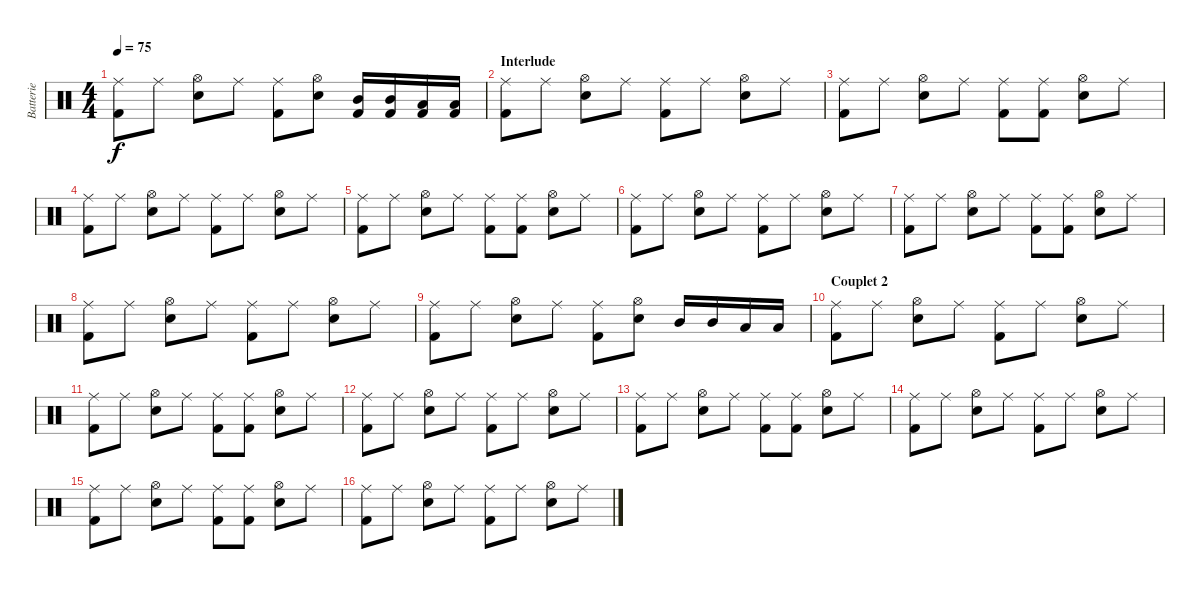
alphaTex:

\track ("Batterie" "Batterie") {instrument percussion}
\staff {score}
\articulation defaults
\ts (4 4)
\tempo 75
\clef neutral
\ks c
("Ride (middle)" "Kick (hit) 2").8{dy f} "Ride (middle)".8 ("Hi-Hat (open)" "Snare (hit) 2").8 "Ride (middle)".8 ("Ride (middle)" "Kick (hit) 2").8 ("Hi-Hat (open)" "Snare (hit) 2").8 ("Mid Tom (hit)" "Kick (hit) 2").16 ("Mid Tom (hit)" "Kick (hit) 2").16 ("Low Tom (hit)" "Kick (hit) 2").16 ("Low Tom (hit)" "Kick (hit) 2").16 |
\section ("" "Interlude")
("Ride (middle)" "Kick (hit) 2").8 "Ride (middle)".8 ("Hi-Hat (open)" "Snare (hit) 2").8 "Ride (middle)".8 ("Ride (middle)" "Kick (hit) 2").8 "Ride (middle)".8 ("Hi-Hat (open)" "Snare (hit) 2").8 "Ride (middle)".8 |
("Ride (middle)" "Kick (hit) 2").8 "Ride (middle)".8 ("Hi-Hat (open)" "Snare (hit) 2").8 "Ride (middle)".8 ("Ride (middle)" "Kick (hit) 2").8 ("Ride (middle)" "Kick (hit) 2").8 ("Hi-Hat (open)" "Snare (hit) 2").8 "Ride (middle)".8 |
("Ride (middle)" "Kick (hit) 2").8 "Ride (middle)".8 ("Hi-Hat (open)" "Snare (hit) 2").8 "Ride (middle)".8 ("Ride (middle)" "Kick (hit) 2").8 "Ride (middle)".8 ("Hi-Hat (open)" "Snare (hit) 2").8 "Ride (middle)".8 |
("Ride (middle)" "Kick (hit) 2").8 "Ride (middle)".8 ("Hi-Hat (open)" "Snare (hit) 2").8 "Ride (middle)".8 ("Ride (middle)" "Kick (hit) 2").8 ("Ride (middle)" "Kick (hit) 2").8 ("Hi-Hat (open)" "Snare (hit) 2").8 "Ride (middle)".8 |
("Ride (middle)" "Kick (hit) 2").8 "Ride (middle)".8 ("Hi-Hat (open)" "Snare (hit) 2").8 "Ride (middle)".8 ("Ride (middle)" "Kick (hit) 2").8 "Ride (middle)".8 ("Hi-Hat (open)" "Snare (hit) 2").8 "Ride (middle)".8 |
("Ride (middle)" "Kick (hit) 2").8 "Ride (middle)".8 ("Hi-Hat (open)" "Snare (hit) 2").8 "Ride (middle)".8 ("Ride (middle)" "Kick (hit) 2").8 ("Ride (middle)" "Kick (hit) 2").8 ("Hi-Hat (open)" "Snare (hit) 2").8 "Ride (middle)".8 |
("Ride (middle)" "Kick (hit) 2").8 "Ride (middle)".8 ("Hi-Hat (open)" "Snare (hit) 2").8 "Ride (middle)".8 ("Ride (middle)" "Kick (hit) 2").8 "Ride (middle)".8 ("Hi-Hat (open)" "Snare (hit) 2").8 "Ride (middle)".8 |
("Ride (middle)" "Kick (hit) 2").8 "Ride (middle)".8 ("Hi-Hat (open)" "Snare (hit) 2").8 "Ride (middle)".8 ("Ride (middle)" "Kick (hit) 2").8 ("Hi-Hat (open)" "Snare (hit) 2").8 "Mid Tom (hit)".16 "Mid Tom (hit)".16 "Low Tom (hit)".16 "Low Tom (hit)".16 |
\section ("" "Couplet 2")
("Ride (middle)" "Kick (hit) 2").8 "Ride (middle)".8 ("Hi-Hat (open)" "Snare (hit) 2").8 "Ride (middle)".8 ("Ride (middle)" "Kick (hit) 2").8 "Ride (middle)".8 ("Hi-Hat (open)" "Snare (hit) 2").8 "Ride (middle)".8 |
("Ride (middle)" "Kick (hit) 2").8 "Ride (middle)".8 ("Hi-Hat (open)" "Snare (hit) 2").8 "Ride (middle)".8 ("Ride (middle)" "Kick (hit) 2").8 ("Ride (middle)" "Kick (hit) 2").8 ("Hi-Hat (open)" "Snare (hit) 2").8 "Ride (middle)".8 |
("Ride (middle)" "Kick (hit) 2").8 "Ride (middle)".8 ("Hi-Hat (open)" "Snare (hit) 2").8 "Ride (middle)".8 ("Ride (middle)" "Kick (hit) 2").8 "Ride (middle)".8 ("Hi-Hat (open)" "Snare (hit) 2").8 "Ride (middle)".8 |
("Ride (middle)" "Kick (hit) 2").8 "Ride (middle)".8 ("Hi-Hat (open)" "Snare (hit) 2").8 "Ride (middle)".8 ("Ride (middle)" "Kick (hit) 2").8 ("Ride (middle)" "Kick (hit) 2").8 ("Hi-Hat (open)" "Snare (hit) 2").8 "Ride (middle)".8 |
("Ride (middle)" "Kick (hit) 2").8 "Ride (middle)".8 ("Hi-Hat (open)" "Snare (hit) 2").8 "Ride (middle)".8 ("Ride (middle)" "Kick (hit) 2").8 "Ride (middle)".8 ("Hi-Hat (open)" "Snare (hit) 2").8 "Ride (middle)".8 |
("Ride (middle)" "Kick (hit) 2").8 "Ride (middle)".8 ("Hi-Hat (open)" "Snare (hit) 2").8 "Ride (middle)".8 ("Ride (middle)" "Kick (hit) 2").8 ("Ride (middle)" "Kick (hit) 2").8 ("Hi-Hat (open)" "Snare (hit) 2").8 "Ride (middle)".8 |
("Ride (middle)" "Kick (hit) 2").8 "Ride (middle)".8 ("Hi-Hat (open)" "Snare (hit) 2").8 "Ride (middle)".8 ("Ride (middle)" "Kick (hit) 2").8 "Ride (middle)".8 ("Hi-Hat (open)" "Snare (hit) 2").8 "Ride (middle)".8
